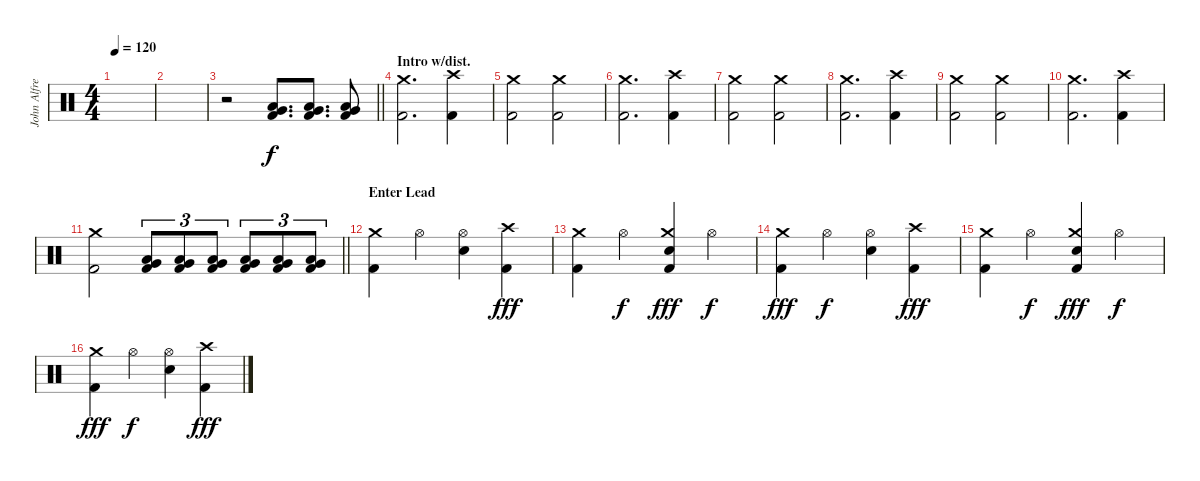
\track ("John Alfredsson" "John Alfre") {instrument percussion}
\staff {score}
\articulation defaults
\ts (4 4)
\tempo 120
\clef neutral
\ks c
|
|
\barLineRight lightlight
r.2 ("Low Floor Tom (hit)" "Very Low Tom (hit)" "Kick (hit) 2").8{d} ("Low Floor Tom (hit)" "Very Low Tom (hit)" "Kick (hit) 2").8{d} ("Low Floor Tom (hit)" "Very Low Tom (hit)" "Kick (hit) 2").8 |
\section ("" "Intro w/dist.")
("Crash medium (hit)" "Kick (hit) 2").2{d} ("Crash high (hit)" "Kick (hit) 2").4 |
("Crash medium (hit)" "Kick (hit) 2").2 ("Crash medium (hit)" "Kick (hit) 2").2 |
("Crash medium (hit)" "Kick (hit) 2").2{d} ("Crash high (hit)" "Kick (hit) 2").4 |
("Crash medium (hit)" "Kick (hit) 2").2 ("Crash medium (hit)" "Kick (hit) 2").2 |
("Crash medium (hit)" "Kick (hit) 2").2{d} ("Crash high (hit)" "Kick (hit) 2").4 |
("Crash medium (hit)" "Kick (hit) 2").2 ("Crash medium (hit)" "Kick (hit) 2").2 |
("Crash medium (hit)" "Kick (hit) 2").2{d} ("Crash high (hit)" "Kick (hit) 2").4 |
\barLineRight lightlight
("Crash medium (hit)" "Kick (hit) 2").2 ("Very Low Tom (hit)" "Low Tom (hit)" "Kick (hit) 2").8{tu (3 2)} ("Very Low Tom (hit)" "Low Tom (hit)" "Kick (hit) 2").8{tu (3 2)} ("Very Low Tom (hit)" "Low Tom (hit)" "Kick (hit) 2").8{tu (3 2)} ("Low Floor Tom (hit)" "Very Low Tom (hit)" "Kick (hit) 2").8{tu (3 2)} ("Low Floor Tom (hit)" "Very Low Tom (hit)" "Kick (hit) 2").8{tu (3 2)} ("Low Floor Tom (hit)" "Very Low Tom (hit)" "Kick (hit) 2").8{tu (3 2)} |
\section ("" "Enter Lead")
("Crash medium (hit)" "Kick (hit) 2").4 "Hi-Hat (open)".4{dy f} ("Hi-Hat (open)" "Electric Snare (hit)").4 ("Crash high (hit)" "Kick (hit) 2").4{dy fff} |
("Crash medium (hit)" "Kick (hit) 2").4 "Hi-Hat (open)".4{dy f} ("Crash medium (hit)" "Electric Snare (hit)" "Kick (hit) 2").4{dy fff} "Hi-Hat (open)".4{dy f} |
("Crash medium (hit)" "Kick (hit) 2").4{dy fff} "Hi-Hat (open)".4{dy f} ("Hi-Hat (open)" "Electric Snare (hit)").4 ("Crash high (hit)" "Kick (hit) 2").4{dy fff} |
("Crash medium (hit)" "Kick (hit) 2").4 "Hi-Hat (open)".4{dy f} ("Crash medium (hit)" "Electric Snare (hit)" "Kick (hit) 2").4{dy fff} "Hi-Hat (open)".4{dy f} |
("Crash medium (hit)" "Kick (hit) 2").4{dy fff} "Hi-Hat (open)".4{dy f} ("Hi-Hat (open)" "Electric Snare (hit)").4 ("Crash high (hit)" "Kick (hit) 2").4{dy fff}
